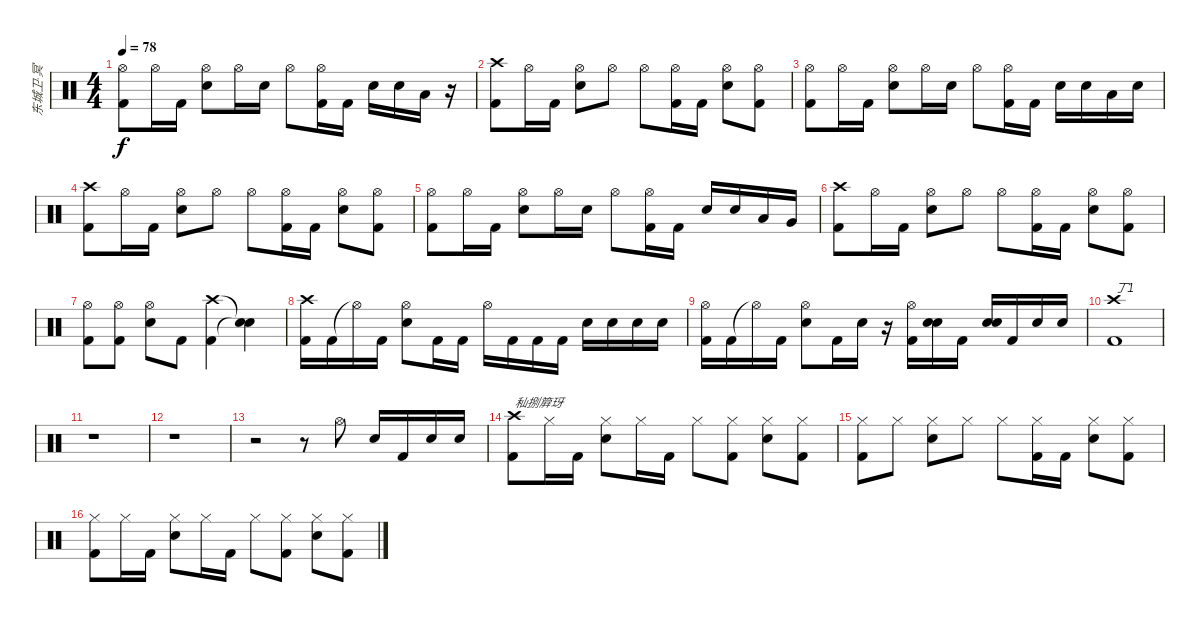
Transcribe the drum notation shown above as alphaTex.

\track ("东城卫·冥" "东城卫·冥") {instrument percussion}
\staff {score}
\articulation defaults
\ts (4 4)
\tempo 78
\clef neutral
\ks c
("Hi-Hat (open)" "Kick (hit) 2").8{dy f} "Hi-Hat (open)".16 "Kick (hit) 2".16 ("Hi-Hat (open)" "Electric Snare (hit)").8 "Hi-Hat (open)".16 "Electric Snare (hit)".16 "Hi-Hat (open)".8 ("Hi-Hat (open)" "Kick (hit) 2").16 "Kick (hit) 2".16 "Electric Snare (hit)".16 "Electric Snare (hit)".16 "Low Tom (hit)".16 r.16 |
("Crash high (hit)" "Kick (hit) 2").8 "Hi-Hat (open)".16 "Kick (hit) 2".16 ("Hi-Hat (open)" "Electric Snare (hit)").8 "Hi-Hat (open)".8 "Hi-Hat (open)".8 ("Hi-Hat (open)" "Kick (hit) 2").16 "Kick (hit) 2".16 ("Hi-Hat (open)" "Electric Snare (hit)").8 ("Hi-Hat (open)" "Kick (hit) 2").8 |
("Hi-Hat (open)" "Kick (hit) 2").8 "Hi-Hat (open)".16 "Kick (hit) 2".16 ("Hi-Hat (open)" "Electric Snare (hit)").8 "Hi-Hat (open)".16 "Electric Snare (hit)".16 "Hi-Hat (open)".8 ("Hi-Hat (open)" "Kick (hit) 2").16 "Kick (hit) 2".16 "Electric Snare (hit)".16 "Electric Snare (hit)".16 "Low Tom (hit)".16 "Electric Snare (hit)".16 |
("Crash high (hit)" "Kick (hit) 2").8 "Hi-Hat (open)".16 "Kick (hit) 2".16 ("Hi-Hat (open)" "Electric Snare (hit)").8 "Hi-Hat (open)".8 "Hi-Hat (open)".8 ("Hi-Hat (open)" "Kick (hit) 2").16 "Kick (hit) 2".16 ("Hi-Hat (open)" "Electric Snare (hit)").8 ("Hi-Hat (open)" "Kick (hit) 2").8 |
("Hi-Hat (open)" "Kick (hit) 2").8 "Hi-Hat (open)".16 "Kick (hit) 2".16 ("Hi-Hat (open)" "Electric Snare (hit)").8 "Hi-Hat (open)".16 "Electric Snare (hit)".16 "Hi-Hat (open)".8 ("Hi-Hat (open)" "Kick (hit) 2").16 "Kick (hit) 2".16 "Electric Snare (hit)".16 "Electric Snare (hit)".16 "Low Tom (hit)".16 "Very Low Tom (hit)".16 |
("Crash high (hit)" "Kick (hit) 2").8 "Hi-Hat (open)".16 "Kick (hit) 2".16 ("Hi-Hat (open)" "Electric Snare (hit)").8 "Hi-Hat (open)".8 "Hi-Hat (open)".8 ("Hi-Hat (open)" "Kick (hit) 2").16 "Kick (hit) 2".16 ("Hi-Hat (open)" "Electric Snare (hit)").8 ("Hi-Hat (open)" "Kick (hit) 2").8 |
("Hi-Hat (open)" "Kick (hit) 2").8 ("Hi-Hat (open)" "Kick (hit) 2").8 ("Hi-Hat (open)" "Electric Snare (hit)").8 "Kick (hit) 2".8 ("Crash high (hit)" "Kick (hit) 2").4 ("Snare (hit)"{t} "Snare (hit)"{t}).4 |
("Crash high (hit)" "Kick (hit) 2").16 "Kick (hit) 2".16 "Hi-Hat (open)"{t}.16 "Kick (hit) 2".16 ("Hi-Hat (open)" "Electric Snare (hit)").8 "Kick (hit) 2".16 "Kick (hit) 2".16 "Hi-Hat (open)".16 "Kick (hit) 2".16 "Kick (hit) 2".16 "Kick (hit) 2".16 "Electric Snare (hit)".16 "Electric Snare (hit)".16 "Electric Snare (hit)".16 "Electric Snare (hit)".16 |
("Hi-Hat (open)" "Kick (hit) 2").16 "Kick (hit) 2".16 "Hi-Hat (open)"{t}.16 "Kick (hit) 2".16 ("Hi-Hat (open)" "Electric Snare (hit)").8 "Kick (hit) 2".16 "Electric Snare (hit)".16 r.16 ("Hi-Hat (open)" "Kick (hit) 2").16 ("Electric Snare (hit)" "Electric Snare (hit)").16 "Kick (hit) 2".16 ("Electric Snare (hit)" "Electric Snare (hit)").16 "Kick (hit) 2".16 "Electric Snare (hit)".16 "Electric Snare (hit)".16 |
("Crash high (hit)" "Kick (hit) 2").1{txt "丁"} |
r.1 |
r.1 |
r.2 r.8 "Hi-Hat (open)".8 "Electric Snare (hit)".16 "Kick (hit) 2".16 "Electric Snare (hit)".16 "Electric Snare (hit)".16 |
("Crash high (hit)" "Kick (hit) 2").8{txt "秈捌簈玡"} "Hi-Hat (closed)".16 "Kick (hit) 2".16 ("Hi-Hat (closed)" "Electric Snare (hit)").8 "Hi-Hat (closed)".16 "Kick (hit) 2".16 "Hi-Hat (closed)".8 ("Hi-Hat (closed)" "Kick (hit) 2").8 ("Hi-Hat (closed)" "Electric Snare (hit)").8 ("Hi-Hat (closed)" "Kick (hit) 2").8 |
("Hi-Hat (closed)" "Kick (hit) 2").8 "Hi-Hat (closed)".8 ("Hi-Hat (closed)" "Electric Snare (hit)").8 "Hi-Hat (closed)".8 "Hi-Hat (closed)".8 ("Hi-Hat (closed)" "Kick (hit) 2").16 "Kick (hit) 2".16 ("Hi-Hat (closed)" "Electric Snare (hit)").8 ("Hi-Hat (closed)" "Kick (hit) 2").8 |
("Hi-Hat (closed)" "Kick (hit) 2").8 "Hi-Hat (closed)".16 "Kick (hit) 2".16 ("Hi-Hat (closed)" "Electric Snare (hit)").8 "Hi-Hat (closed)".16 "Kick (hit) 2".16 "Hi-Hat (closed)".8 ("Hi-Hat (closed)" "Kick (hit) 2").8 ("Hi-Hat (closed)" "Electric Snare (hit)").8 ("Hi-Hat (closed)" "Kick (hit) 2").8
